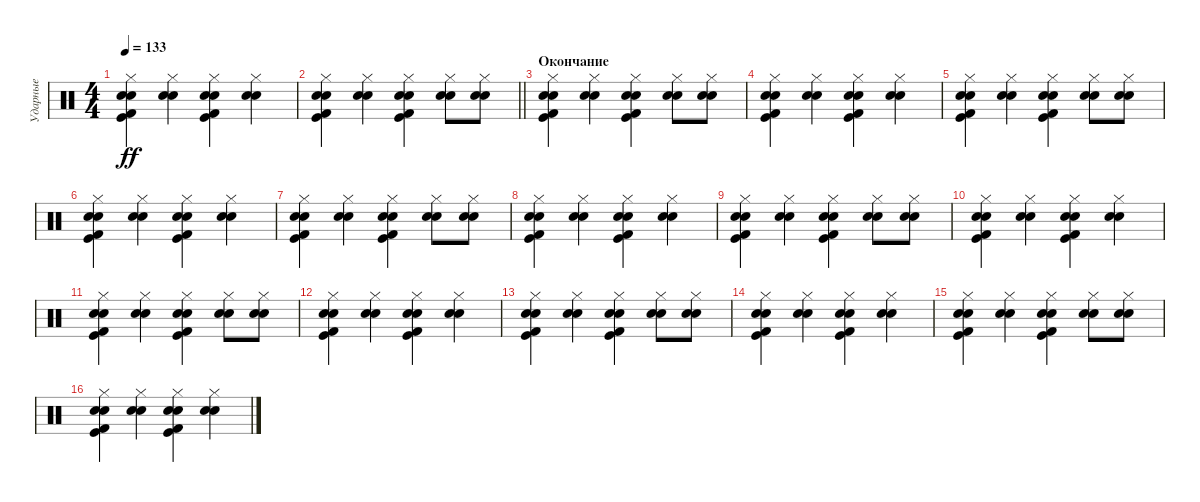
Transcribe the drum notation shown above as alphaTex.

\track ("Ударные" "Ударные") {instrument percussion}
\staff {score}
\articulation defaults
\ts (4 4)
\tempo 133
\clef neutral
\ks c
("Snare (hit) 2" "Kick (hit)" "Kick (hit) 2" "Snare (hit) 2" "Hi-Hat (closed)").4{dy ff} ("Electric Snare (hit)" "Electric Snare (hit)" "Hi-Hat (closed)").4 ("Snare (hit) 2" "Kick (hit)" "Kick (hit) 2" "Snare (hit) 2" "Hi-Hat (closed)").4 ("Electric Snare (hit)" "Electric Snare (hit)" "Hi-Hat (closed)").4 |
\barLineRight lightlight
("Snare (hit) 2" "Kick (hit)" "Kick (hit) 2" "Snare (hit) 2" "Hi-Hat (closed)").4 ("Electric Snare (hit)" "Electric Snare (hit)" "Hi-Hat (closed)").4 ("Snare (hit) 2" "Kick (hit)" "Kick (hit) 2" "Snare (hit) 2" "Hi-Hat (closed)").4 ("Electric Snare (hit)" "Electric Snare (hit)" "Hi-Hat (closed)").8 ("Electric Snare (hit)" "Electric Snare (hit)" "Hi-Hat (closed)").8 |
\section ("" "Окончание")
("Snare (hit) 2" "Kick (hit)" "Kick (hit) 2" "Snare (hit) 2" "Hi-Hat (closed)").4 ("Electric Snare (hit)" "Electric Snare (hit)" "Hi-Hat (closed)").4 ("Snare (hit) 2" "Kick (hit)" "Kick (hit) 2" "Snare (hit) 2" "Hi-Hat (closed)").4 ("Electric Snare (hit)" "Electric Snare (hit)" "Hi-Hat (closed)").8 ("Electric Snare (hit)" "Electric Snare (hit)" "Hi-Hat (closed)").8 |
("Snare (hit) 2" "Kick (hit)" "Kick (hit) 2" "Snare (hit) 2" "Hi-Hat (closed)").4 ("Electric Snare (hit)" "Electric Snare (hit)" "Hi-Hat (closed)").4 ("Snare (hit) 2" "Kick (hit)" "Kick (hit) 2" "Snare (hit) 2" "Hi-Hat (closed)").4 ("Electric Snare (hit)" "Electric Snare (hit)" "Hi-Hat (closed)").4 |
("Snare (hit) 2" "Kick (hit)" "Kick (hit) 2" "Snare (hit) 2" "Hi-Hat (closed)").4 ("Electric Snare (hit)" "Electric Snare (hit)" "Hi-Hat (closed)").4 ("Snare (hit) 2" "Kick (hit)" "Kick (hit) 2" "Snare (hit) 2" "Hi-Hat (closed)").4 ("Electric Snare (hit)" "Electric Snare (hit)" "Hi-Hat (closed)").8 ("Electric Snare (hit)" "Electric Snare (hit)" "Hi-Hat (closed)").8 |
("Snare (hit) 2" "Kick (hit)" "Kick (hit) 2" "Snare (hit) 2" "Hi-Hat (closed)").4 ("Electric Snare (hit)" "Electric Snare (hit)" "Hi-Hat (closed)").4 ("Snare (hit) 2" "Kick (hit)" "Kick (hit) 2" "Snare (hit) 2" "Hi-Hat (closed)").4 ("Electric Snare (hit)" "Electric Snare (hit)" "Hi-Hat (closed)").4 |
("Snare (hit) 2" "Kick (hit)" "Kick (hit) 2" "Snare (hit) 2" "Hi-Hat (closed)").4 ("Electric Snare (hit)" "Electric Snare (hit)" "Hi-Hat (closed)").4 ("Snare (hit) 2" "Kick (hit)" "Kick (hit) 2" "Snare (hit) 2" "Hi-Hat (closed)").4 ("Electric Snare (hit)" "Electric Snare (hit)" "Hi-Hat (closed)").8 ("Electric Snare (hit)" "Electric Snare (hit)" "Hi-Hat (closed)").8 |
("Snare (hit) 2" "Kick (hit)" "Kick (hit) 2" "Snare (hit) 2" "Hi-Hat (closed)").4 ("Electric Snare (hit)" "Electric Snare (hit)" "Hi-Hat (closed)").4 ("Snare (hit) 2" "Kick (hit)" "Kick (hit) 2" "Snare (hit) 2" "Hi-Hat (closed)").4 ("Electric Snare (hit)" "Electric Snare (hit)" "Hi-Hat (closed)").4 |
("Snare (hit) 2" "Kick (hit)" "Kick (hit) 2" "Snare (hit) 2" "Hi-Hat (closed)").4 ("Electric Snare (hit)" "Electric Snare (hit)" "Hi-Hat (closed)").4 ("Snare (hit) 2" "Kick (hit)" "Kick (hit) 2" "Snare (hit) 2" "Hi-Hat (closed)").4 ("Electric Snare (hit)" "Electric Snare (hit)" "Hi-Hat (closed)").8 ("Electric Snare (hit)" "Electric Snare (hit)" "Hi-Hat (closed)").8 |
("Snare (hit) 2" "Kick (hit)" "Kick (hit) 2" "Snare (hit) 2" "Hi-Hat (closed)").4 ("Electric Snare (hit)" "Electric Snare (hit)" "Hi-Hat (closed)").4 ("Snare (hit) 2" "Kick (hit)" "Kick (hit) 2" "Snare (hit) 2" "Hi-Hat (closed)").4 ("Electric Snare (hit)" "Electric Snare (hit)" "Hi-Hat (closed)").4 |
("Snare (hit) 2" "Kick (hit)" "Kick (hit) 2" "Snare (hit) 2" "Hi-Hat (closed)").4 ("Electric Snare (hit)" "Electric Snare (hit)" "Hi-Hat (closed)").4 ("Snare (hit) 2" "Kick (hit)" "Kick (hit) 2" "Snare (hit) 2" "Hi-Hat (closed)").4 ("Electric Snare (hit)" "Electric Snare (hit)" "Hi-Hat (closed)").8 ("Electric Snare (hit)" "Electric Snare (hit)" "Hi-Hat (closed)").8 |
("Snare (hit) 2" "Kick (hit)" "Kick (hit) 2" "Snare (hit) 2" "Hi-Hat (closed)").4 ("Electric Snare (hit)" "Electric Snare (hit)" "Hi-Hat (closed)").4 ("Snare (hit) 2" "Kick (hit)" "Kick (hit) 2" "Snare (hit) 2" "Hi-Hat (closed)").4 ("Electric Snare (hit)" "Electric Snare (hit)" "Hi-Hat (closed)").4 |
("Snare (hit) 2" "Kick (hit)" "Kick (hit) 2" "Snare (hit) 2" "Hi-Hat (closed)").4 ("Electric Snare (hit)" "Electric Snare (hit)" "Hi-Hat (closed)").4 ("Snare (hit) 2" "Kick (hit)" "Kick (hit) 2" "Snare (hit) 2" "Hi-Hat (closed)").4 ("Electric Snare (hit)" "Electric Snare (hit)" "Hi-Hat (closed)").8 ("Electric Snare (hit)" "Electric Snare (hit)" "Hi-Hat (closed)").8 |
("Snare (hit) 2" "Kick (hit)" "Kick (hit) 2" "Snare (hit) 2" "Hi-Hat (closed)").4 ("Electric Snare (hit)" "Electric Snare (hit)" "Hi-Hat (closed)").4 ("Snare (hit) 2" "Kick (hit)" "Kick (hit) 2" "Snare (hit) 2" "Hi-Hat (closed)").4 ("Electric Snare (hit)" "Electric Snare (hit)" "Hi-Hat (closed)").4 |
("Snare (hit) 2" "Kick (hit)" "Kick (hit) 2" "Snare (hit) 2" "Hi-Hat (closed)").4 ("Electric Snare (hit)" "Electric Snare (hit)" "Hi-Hat (closed)").4 ("Snare (hit) 2" "Kick (hit)" "Kick (hit) 2" "Snare (hit) 2" "Hi-Hat (closed)").4 ("Electric Snare (hit)" "Electric Snare (hit)" "Hi-Hat (closed)").8 ("Electric Snare (hit)" "Electric Snare (hit)" "Hi-Hat (closed)").8 |
("Snare (hit) 2" "Kick (hit)" "Kick (hit) 2" "Snare (hit) 2" "Hi-Hat (closed)").4 ("Electric Snare (hit)" "Electric Snare (hit)" "Hi-Hat (closed)").4 ("Snare (hit) 2" "Kick (hit)" "Kick (hit) 2" "Snare (hit) 2" "Hi-Hat (closed)").4 ("Electric Snare (hit)" "Electric Snare (hit)" "Hi-Hat (closed)").4
